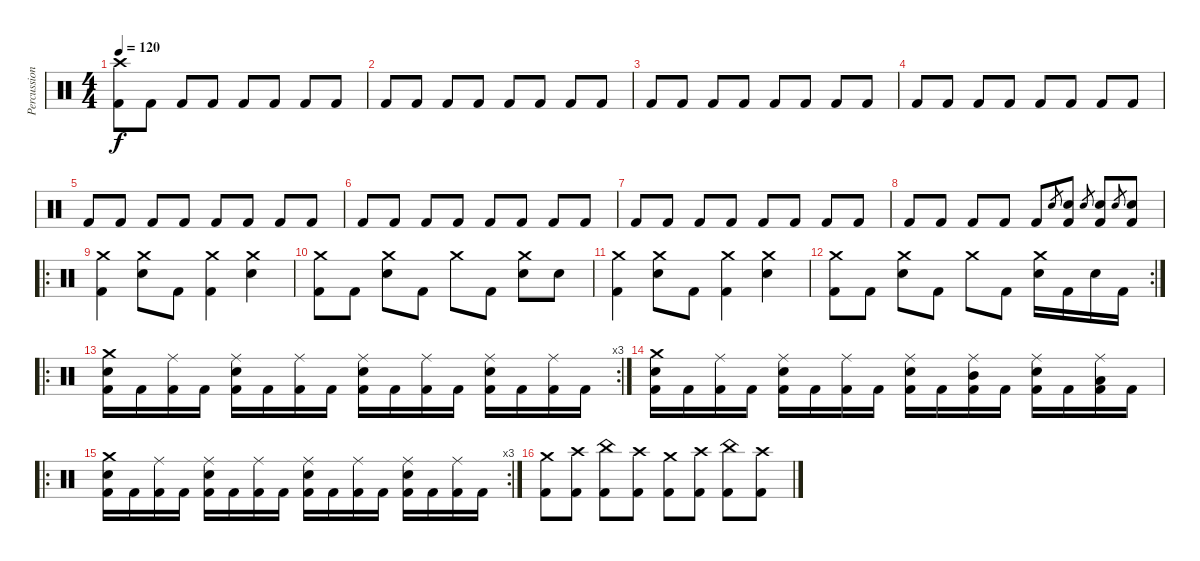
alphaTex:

\track ("Percussions" "Percussion") {instrument percussion}
\staff {score}
\articulation defaults
\ts (4 4)
\tempo 120
\clef neutral
\ks c
("Crash high (hit)" "Kick (hit) 2").8{dy f} "Kick (hit) 2".8 "Kick (hit) 2".8 "Kick (hit) 2".8 "Kick (hit) 2".8 "Kick (hit) 2".8 "Kick (hit) 2".8 "Kick (hit) 2".8 |
"Kick (hit) 2".8 "Kick (hit) 2".8 "Kick (hit) 2".8 "Kick (hit) 2".8 "Kick (hit) 2".8 "Kick (hit) 2".8 "Kick (hit) 2".8 "Kick (hit) 2".8 |
"Kick (hit) 2".8 "Kick (hit) 2".8 "Kick (hit) 2".8 "Kick (hit) 2".8 "Kick (hit) 2".8 "Kick (hit) 2".8 "Kick (hit) 2".8 "Kick (hit) 2".8 |
"Kick (hit) 2".8 "Kick (hit) 2".8 "Kick (hit) 2".8 "Kick (hit) 2".8 "Kick (hit) 2".8 "Kick (hit) 2".8 "Kick (hit) 2".8 "Kick (hit) 2".8 |
"Kick (hit) 2".8 "Kick (hit) 2".8 "Kick (hit) 2".8 "Kick (hit) 2".8 "Kick (hit) 2".8 "Kick (hit) 2".8 "Kick (hit) 2".8 "Kick (hit) 2".8 |
"Kick (hit) 2".8 "Kick (hit) 2".8 "Kick (hit) 2".8 "Kick (hit) 2".8 "Kick (hit) 2".8 "Kick (hit) 2".8 "Kick (hit) 2".8 "Kick (hit) 2".8 |
"Kick (hit) 2".8 "Kick (hit) 2".8 "Kick (hit) 2".8 "Kick (hit) 2".8 "Kick (hit) 2".8 "Kick (hit) 2".8 "Kick (hit) 2".8 "Kick (hit) 2".8 |
"Kick (hit) 2".8 "Kick (hit) 2".8 "Kick (hit) 2".8 "Kick (hit) 2".8 "Kick (hit) 2".8 "Snare (hit) 2".8{gr} ("Snare (hit) 2" "Kick (hit) 2").8 "Snare (hit) 2".8{gr} ("Snare (hit) 2" "Kick (hit) 2").8 "Snare (hit) 2".8{gr} ("Snare (hit) 2" "Kick (hit) 2").8 |
\ro
("Crash medium (hit)" "Kick (hit) 2").4 ("Crash medium (hit)" "Snare (hit) 2").8 "Kick (hit) 2".8 ("Crash medium (hit)" "Kick (hit) 2").4 ("Crash medium (hit)" "Snare (hit) 2").4 |
("Crash medium (hit)" "Kick (hit) 2").8 "Kick (hit) 2".8 ("Crash medium (hit)" "Snare (hit) 2").8 "Kick (hit) 2".8 "Crash medium (hit)".8 "Kick (hit) 2".8 ("Crash medium (hit)" "Snare (hit) 2").8 "Snare (hit) 2".8 |
("Crash medium (hit)" "Kick (hit) 2").4 ("Crash medium (hit)" "Snare (hit) 2").8 "Kick (hit) 2".8 ("Crash medium (hit)" "Kick (hit) 2").4 ("Crash medium (hit)" "Snare (hit) 2").4 |
\rc 2
("Crash medium (hit)" "Kick (hit) 2").8 "Kick (hit) 2".8 ("Crash medium (hit)" "Snare (hit) 2").8 "Kick (hit) 2".8 "Crash medium (hit)".8 "Kick (hit) 2".8 ("Crash medium (hit)" "Snare (hit) 2").16 "Kick (hit) 2".16 "Snare (hit) 2".16 "Kick (hit) 2".16 |
\ro
\rc 3
("Crash medium (hit)" "Snare (hit) 2" "Kick (hit) 2").16 "Kick (hit) 2".16 ("Ride (middle)" "Kick (hit) 2").16 "Kick (hit) 2".16 ("Ride (middle)" "Snare (hit) 2" "Kick (hit) 2").16 "Kick (hit) 2".16 ("Ride (middle)" "Kick (hit) 2").16 "Kick (hit) 2".16 ("Ride (middle)" "Snare (hit) 2" "Kick (hit) 2").16 "Kick (hit) 2".16 ("Ride (middle)" "Kick (hit) 2").16 "Kick (hit) 2".16 ("Ride (middle)" "Snare (hit) 2" "Kick (hit) 2").16 "Kick (hit) 2".16 ("Ride (middle)" "Kick (hit) 2").16 "Kick (hit) 2".16 |
("Crash medium (hit)" "Snare (hit) 2" "Kick (hit) 2").16 "Kick (hit) 2".16 ("Ride (middle)" "Kick (hit) 2").16 "Kick (hit) 2".16 ("Ride (middle)" "Snare (hit) 2" "Kick (hit) 2").16 "Kick (hit) 2".16 ("Ride (middle)" "Kick (hit) 2").16 "Kick (hit) 2".16 ("Ride (middle)" "Snare (hit) 2" "Kick (hit) 2").16 "Kick (hit) 2".16 ("Ride (middle)" "Mid Tom (hit)" "Kick (hit) 2").16 "Kick (hit) 2".16 ("Ride (middle)" "Snare (hit) 2" "Kick (hit) 2").16 "Kick (hit) 2".16 ("Ride (middle)" "Low Floor Tom (hit)" "Kick (hit) 2").16 "Kick (hit) 2".16 |
\ro
\rc 3
("Crash medium (hit)" "Snare (hit) 2" "Kick (hit) 2").16 "Kick (hit) 2".16 ("Ride (middle)" "Kick (hit) 2").16 "Kick (hit) 2".16 ("Ride (middle)" "Snare (hit) 2" "Kick (hit) 2").16 "Kick (hit) 2".16 ("Ride (middle)" "Kick (hit) 2").16 "Kick (hit) 2".16 ("Ride (middle)" "Snare (hit) 2" "Kick (hit) 2").16 "Kick (hit) 2".16 ("Ride (middle)" "Kick (hit) 2").16 "Kick (hit) 2".16 ("Ride (middle)" "Snare (hit) 2" "Kick (hit) 2").16 "Kick (hit) 2".16 ("Ride (middle)" "Kick (hit) 2").16 "Kick (hit) 2".16 |
("Crash medium (hit)" "Kick (hit) 2").8 ("Crash high (hit)" "Kick (hit) 2").8 ("China (hit)" "Kick (hit) 2").8 ("Crash high (hit)" "Kick (hit) 2").8 ("Crash medium (hit)" "Kick (hit) 2").8 ("Crash high (hit)" "Kick (hit) 2").8 ("China (hit)" "Kick (hit) 2").8 ("Crash high (hit)" "Kick (hit) 2").8
